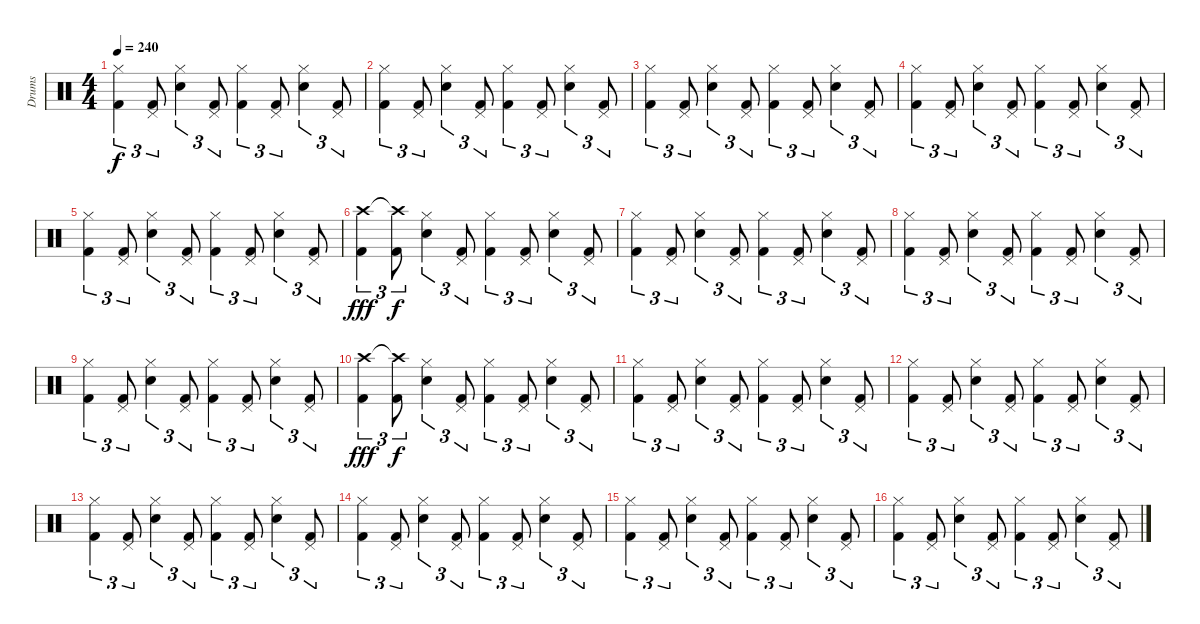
\track ("Drums" "Drums") {instrument percussion}
\staff {score}
\articulation defaults
\ts (4 4)
\tempo 240
\clef neutral
\ks c
("Hi-Hat (closed)" "Kick (hit) 2").4{tu (3 2) dy f} ("Pedal Hi-Hat (hit)" "Kick (hit) 2").8{tu (3 2)} ("Hi-Hat (closed)" "Snare (hit) 2").4{tu (3 2)} ("Pedal Hi-Hat (hit)" "Kick (hit) 2").8{tu (3 2)} ("Hi-Hat (closed)" "Kick (hit) 2").4{tu (3 2)} ("Pedal Hi-Hat (hit)" "Kick (hit) 2").8{tu (3 2)} ("Hi-Hat (closed)" "Snare (hit) 2").4{tu (3 2)} ("Pedal Hi-Hat (hit)" "Kick (hit) 2").8{tu (3 2)} |
("Hi-Hat (closed)" "Kick (hit) 2").4{tu (3 2)} ("Pedal Hi-Hat (hit)" "Kick (hit) 2").8{tu (3 2)} ("Hi-Hat (closed)" "Snare (hit) 2").4{tu (3 2)} ("Pedal Hi-Hat (hit)" "Kick (hit) 2").8{tu (3 2)} ("Hi-Hat (closed)" "Kick (hit) 2").4{tu (3 2)} ("Pedal Hi-Hat (hit)" "Kick (hit) 2").8{tu (3 2)} ("Hi-Hat (closed)" "Snare (hit) 2").4{tu (3 2)} ("Pedal Hi-Hat (hit)" "Kick (hit) 2").8{tu (3 2)} |
("Hi-Hat (closed)" "Kick (hit) 2").4{tu (3 2)} ("Pedal Hi-Hat (hit)" "Kick (hit) 2").8{tu (3 2)} ("Hi-Hat (closed)" "Snare (hit) 2").4{tu (3 2)} ("Pedal Hi-Hat (hit)" "Kick (hit) 2").8{tu (3 2)} ("Hi-Hat (closed)" "Kick (hit) 2").4{tu (3 2)} ("Pedal Hi-Hat (hit)" "Kick (hit) 2").8{tu (3 2)} ("Hi-Hat (closed)" "Snare (hit) 2").4{tu (3 2)} ("Pedal Hi-Hat (hit)" "Kick (hit) 2").8{tu (3 2)} |
("Hi-Hat (closed)" "Kick (hit) 2").4{tu (3 2)} ("Pedal Hi-Hat (hit)" "Kick (hit) 2").8{tu (3 2)} ("Hi-Hat (closed)" "Snare (hit) 2").4{tu (3 2)} ("Pedal Hi-Hat (hit)" "Kick (hit) 2").8{tu (3 2)} ("Hi-Hat (closed)" "Kick (hit) 2").4{tu (3 2)} ("Pedal Hi-Hat (hit)" "Kick (hit) 2").8{tu (3 2)} ("Hi-Hat (closed)" "Snare (hit) 2").4{tu (3 2)} ("Pedal Hi-Hat (hit)" "Kick (hit) 2").8{tu (3 2)} |
("Hi-Hat (closed)" "Kick (hit) 2").4{tu (3 2)} ("Pedal Hi-Hat (hit)" "Kick (hit) 2").8{tu (3 2)} ("Hi-Hat (closed)" "Snare (hit) 2").4{tu (3 2)} ("Pedal Hi-Hat (hit)" "Kick (hit) 2").8{tu (3 2)} ("Hi-Hat (closed)" "Kick (hit) 2").4{tu (3 2)} ("Pedal Hi-Hat (hit)" "Kick (hit) 2").8{tu (3 2)} ("Hi-Hat (closed)" "Snare (hit) 2").4{tu (3 2)} ("Pedal Hi-Hat (hit)" "Kick (hit) 2").8{tu (3 2)} |
("Crash high (hit)" "Kick (hit) 2").4{tu (3 2) dy fff} ("Crash high (hit)"{t} "Kick (hit) 2").8{tu (3 2) dy f} ("Hi-Hat (closed)" "Snare (hit) 2").4{tu (3 2)} ("Pedal Hi-Hat (hit)" "Kick (hit) 2").8{tu (3 2)} ("Hi-Hat (closed)" "Kick (hit) 2").4{tu (3 2)} ("Pedal Hi-Hat (hit)" "Kick (hit) 2").8{tu (3 2)} ("Hi-Hat (closed)" "Snare (hit) 2").4{tu (3 2)} ("Pedal Hi-Hat (hit)" "Kick (hit) 2").8{tu (3 2)} |
("Hi-Hat (closed)" "Kick (hit) 2").4{tu (3 2)} ("Pedal Hi-Hat (hit)" "Kick (hit) 2").8{tu (3 2)} ("Hi-Hat (closed)" "Snare (hit) 2").4{tu (3 2)} ("Pedal Hi-Hat (hit)" "Kick (hit) 2").8{tu (3 2)} ("Hi-Hat (closed)" "Kick (hit) 2").4{tu (3 2)} ("Pedal Hi-Hat (hit)" "Kick (hit) 2").8{tu (3 2)} ("Hi-Hat (closed)" "Snare (hit) 2").4{tu (3 2)} ("Pedal Hi-Hat (hit)" "Kick (hit) 2").8{tu (3 2)} |
("Hi-Hat (closed)" "Kick (hit) 2").4{tu (3 2)} ("Pedal Hi-Hat (hit)" "Kick (hit) 2").8{tu (3 2)} ("Hi-Hat (closed)" "Snare (hit) 2").4{tu (3 2)} ("Pedal Hi-Hat (hit)" "Kick (hit) 2").8{tu (3 2)} ("Hi-Hat (closed)" "Kick (hit) 2").4{tu (3 2)} ("Pedal Hi-Hat (hit)" "Kick (hit) 2").8{tu (3 2)} ("Hi-Hat (closed)" "Snare (hit) 2").4{tu (3 2)} ("Pedal Hi-Hat (hit)" "Kick (hit) 2").8{tu (3 2)} |
("Hi-Hat (closed)" "Kick (hit) 2").4{tu (3 2)} ("Pedal Hi-Hat (hit)" "Kick (hit) 2").8{tu (3 2)} ("Hi-Hat (closed)" "Snare (hit) 2").4{tu (3 2)} ("Pedal Hi-Hat (hit)" "Kick (hit) 2").8{tu (3 2)} ("Hi-Hat (closed)" "Kick (hit) 2").4{tu (3 2)} ("Pedal Hi-Hat (hit)" "Kick (hit) 2").8{tu (3 2)} ("Hi-Hat (closed)" "Snare (hit) 2").4{tu (3 2)} ("Pedal Hi-Hat (hit)" "Kick (hit) 2").8{tu (3 2)} |
("Crash high (hit)" "Kick (hit) 2").4{tu (3 2) dy fff} ("Crash high (hit)"{t} "Kick (hit) 2").8{tu (3 2) dy f} ("Hi-Hat (closed)" "Snare (hit) 2").4{tu (3 2)} ("Pedal Hi-Hat (hit)" "Kick (hit) 2").8{tu (3 2)} ("Hi-Hat (closed)" "Kick (hit) 2").4{tu (3 2)} ("Pedal Hi-Hat (hit)" "Kick (hit) 2").8{tu (3 2)} ("Hi-Hat (closed)" "Snare (hit) 2").4{tu (3 2)} ("Pedal Hi-Hat (hit)" "Kick (hit) 2").8{tu (3 2)} |
("Hi-Hat (closed)" "Kick (hit) 2").4{tu (3 2)} ("Pedal Hi-Hat (hit)" "Kick (hit) 2").8{tu (3 2)} ("Hi-Hat (closed)" "Snare (hit) 2").4{tu (3 2)} ("Pedal Hi-Hat (hit)" "Kick (hit) 2").8{tu (3 2)} ("Hi-Hat (closed)" "Kick (hit) 2").4{tu (3 2)} ("Pedal Hi-Hat (hit)" "Kick (hit) 2").8{tu (3 2)} ("Hi-Hat (closed)" "Snare (hit) 2").4{tu (3 2)} ("Pedal Hi-Hat (hit)" "Kick (hit) 2").8{tu (3 2)} |
("Hi-Hat (closed)" "Kick (hit) 2").4{tu (3 2)} ("Pedal Hi-Hat (hit)" "Kick (hit) 2").8{tu (3 2)} ("Hi-Hat (closed)" "Snare (hit) 2").4{tu (3 2)} ("Pedal Hi-Hat (hit)" "Kick (hit) 2").8{tu (3 2)} ("Hi-Hat (closed)" "Kick (hit) 2").4{tu (3 2)} ("Pedal Hi-Hat (hit)" "Kick (hit) 2").8{tu (3 2)} ("Hi-Hat (closed)" "Snare (hit) 2").4{tu (3 2)} ("Pedal Hi-Hat (hit)" "Kick (hit) 2").8{tu (3 2)} |
("Hi-Hat (closed)" "Kick (hit) 2").4{tu (3 2)} ("Pedal Hi-Hat (hit)" "Kick (hit) 2").8{tu (3 2)} ("Hi-Hat (closed)" "Snare (hit) 2").4{tu (3 2)} ("Pedal Hi-Hat (hit)" "Kick (hit) 2").8{tu (3 2)} ("Hi-Hat (closed)" "Kick (hit) 2").4{tu (3 2)} ("Pedal Hi-Hat (hit)" "Kick (hit) 2").8{tu (3 2)} ("Hi-Hat (closed)" "Snare (hit) 2").4{tu (3 2)} ("Pedal Hi-Hat (hit)" "Kick (hit) 2").8{tu (3 2)} |
("Hi-Hat (closed)" "Kick (hit) 2").4{tu (3 2)} ("Pedal Hi-Hat (hit)" "Kick (hit) 2").8{tu (3 2)} ("Hi-Hat (closed)" "Snare (hit) 2").4{tu (3 2)} ("Pedal Hi-Hat (hit)" "Kick (hit) 2").8{tu (3 2)} ("Hi-Hat (closed)" "Kick (hit) 2").4{tu (3 2)} ("Pedal Hi-Hat (hit)" "Kick (hit) 2").8{tu (3 2)} ("Hi-Hat (closed)" "Snare (hit) 2").4{tu (3 2)} ("Pedal Hi-Hat (hit)" "Kick (hit) 2").8{tu (3 2)} |
("Hi-Hat (closed)" "Kick (hit) 2").4{tu (3 2)} ("Pedal Hi-Hat (hit)" "Kick (hit) 2").8{tu (3 2)} ("Hi-Hat (closed)" "Snare (hit) 2").4{tu (3 2)} ("Pedal Hi-Hat (hit)" "Kick (hit) 2").8{tu (3 2)} ("Hi-Hat (closed)" "Kick (hit) 2").4{tu (3 2)} ("Pedal Hi-Hat (hit)" "Kick (hit) 2").8{tu (3 2)} ("Hi-Hat (closed)" "Snare (hit) 2").4{tu (3 2)} ("Pedal Hi-Hat (hit)" "Kick (hit) 2").8{tu (3 2)} |
("Hi-Hat (closed)" "Kick (hit) 2").4{tu (3 2)} ("Pedal Hi-Hat (hit)" "Kick (hit) 2").8{tu (3 2)} ("Hi-Hat (closed)" "Snare (hit) 2").4{tu (3 2)} ("Pedal Hi-Hat (hit)" "Kick (hit) 2").8{tu (3 2)} ("Hi-Hat (closed)" "Kick (hit) 2").4{tu (3 2)} ("Pedal Hi-Hat (hit)" "Kick (hit) 2").8{tu (3 2)} ("Hi-Hat (closed)" "Snare (hit) 2").4{tu (3 2)} ("Pedal Hi-Hat (hit)" "Kick (hit) 2").8{tu (3 2)}
